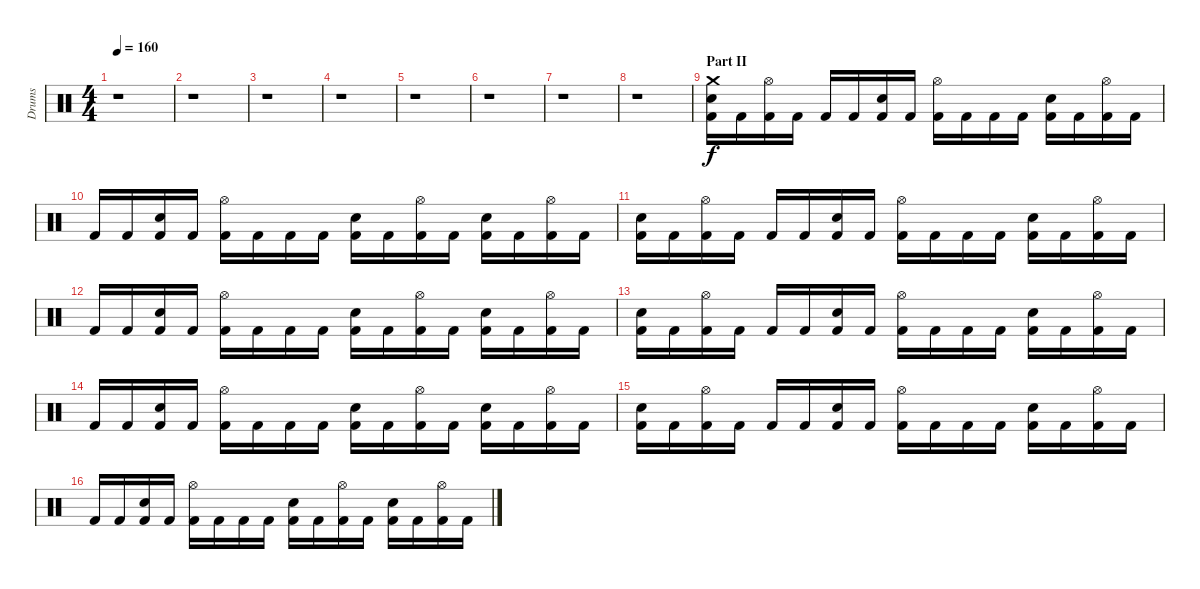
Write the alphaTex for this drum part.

\track ("Drums" "Drums") {instrument percussion}
\staff {score}
\articulation defaults
\ts (4 4)
\tempo 160
\clef neutral
\ks c
r.1{dy mf} |
r.1 |
r.1 |
r.1 |
r.1 |
r.1 |
r.1 |
r.1 |
\section ("" "Part II")
("Crash medium (hit)" "Snare (hit) 2" "Kick (hit) 2").16{dy f} "Kick (hit) 2".16 ("Hi-Hat (open)" "Kick (hit) 2").16 "Kick (hit) 2".16 "Kick (hit) 2".16 "Kick (hit) 2".16 ("Snare (hit) 2" "Kick (hit) 2").16 "Kick (hit) 2".16 ("Hi-Hat (open)" "Kick (hit) 2").16 "Kick (hit) 2".16 "Kick (hit) 2".16 "Kick (hit) 2".16 ("Snare (hit) 2" "Kick (hit) 2").16 "Kick (hit) 2".16 ("Hi-Hat (open)" "Kick (hit) 2").16 "Kick (hit) 2".16 |
"Kick (hit) 2".16 "Kick (hit) 2".16 ("Snare (hit) 2" "Kick (hit) 2").16 "Kick (hit) 2".16 ("Hi-Hat (open)" "Kick (hit) 2").16 "Kick (hit) 2".16 "Kick (hit) 2".16 "Kick (hit) 2".16 ("Snare (hit) 2" "Kick (hit) 2").16 "Kick (hit) 2".16 ("Hi-Hat (open)" "Kick (hit) 2").16 "Kick (hit) 2".16 ("Snare (hit) 2" "Kick (hit) 2").16 "Kick (hit) 2".16 ("Hi-Hat (open)" "Kick (hit) 2").16 "Kick (hit) 2".16 |
("Snare (hit) 2" "Kick (hit) 2").16 "Kick (hit) 2".16 ("Hi-Hat (open)" "Kick (hit) 2").16 "Kick (hit) 2".16 "Kick (hit) 2".16 "Kick (hit) 2".16 ("Snare (hit) 2" "Kick (hit) 2").16 "Kick (hit) 2".16 ("Hi-Hat (open)" "Kick (hit) 2").16 "Kick (hit) 2".16 "Kick (hit) 2".16 "Kick (hit) 2".16 ("Snare (hit) 2" "Kick (hit) 2").16 "Kick (hit) 2".16 ("Hi-Hat (open)" "Kick (hit) 2").16 "Kick (hit) 2".16 |
"Kick (hit) 2".16 "Kick (hit) 2".16 ("Snare (hit) 2" "Kick (hit) 2").16 "Kick (hit) 2".16 ("Hi-Hat (open)" "Kick (hit) 2").16 "Kick (hit) 2".16 "Kick (hit) 2".16 "Kick (hit) 2".16 ("Snare (hit) 2" "Kick (hit) 2").16 "Kick (hit) 2".16 ("Hi-Hat (open)" "Kick (hit) 2").16 "Kick (hit) 2".16 ("Snare (hit) 2" "Kick (hit) 2").16 "Kick (hit) 2".16 ("Hi-Hat (open)" "Kick (hit) 2").16 "Kick (hit) 2".16 |
("Snare (hit) 2" "Kick (hit) 2").16 "Kick (hit) 2".16 ("Hi-Hat (open)" "Kick (hit) 2").16 "Kick (hit) 2".16 "Kick (hit) 2".16 "Kick (hit) 2".16 ("Snare (hit) 2" "Kick (hit) 2").16 "Kick (hit) 2".16 ("Hi-Hat (open)" "Kick (hit) 2").16 "Kick (hit) 2".16 "Kick (hit) 2".16 "Kick (hit) 2".16 ("Snare (hit) 2" "Kick (hit) 2").16 "Kick (hit) 2".16 ("Hi-Hat (open)" "Kick (hit) 2").16 "Kick (hit) 2".16 |
"Kick (hit) 2".16 "Kick (hit) 2".16 ("Snare (hit) 2" "Kick (hit) 2").16 "Kick (hit) 2".16 ("Hi-Hat (open)" "Kick (hit) 2").16 "Kick (hit) 2".16 "Kick (hit) 2".16 "Kick (hit) 2".16 ("Snare (hit) 2" "Kick (hit) 2").16 "Kick (hit) 2".16 ("Hi-Hat (open)" "Kick (hit) 2").16 "Kick (hit) 2".16 ("Snare (hit) 2" "Kick (hit) 2").16 "Kick (hit) 2".16 ("Hi-Hat (open)" "Kick (hit) 2").16 "Kick (hit) 2".16 |
("Snare (hit) 2" "Kick (hit) 2").16 "Kick (hit) 2".16 ("Hi-Hat (open)" "Kick (hit) 2").16 "Kick (hit) 2".16 "Kick (hit) 2".16 "Kick (hit) 2".16 ("Snare (hit) 2" "Kick (hit) 2").16 "Kick (hit) 2".16 ("Hi-Hat (open)" "Kick (hit) 2").16 "Kick (hit) 2".16 "Kick (hit) 2".16 "Kick (hit) 2".16 ("Snare (hit) 2" "Kick (hit) 2").16 "Kick (hit) 2".16 ("Hi-Hat (open)" "Kick (hit) 2").16 "Kick (hit) 2".16 |
"Kick (hit) 2".16 "Kick (hit) 2".16 ("Snare (hit) 2" "Kick (hit) 2").16 "Kick (hit) 2".16 ("Hi-Hat (open)" "Kick (hit) 2").16 "Kick (hit) 2".16 "Kick (hit) 2".16 "Kick (hit) 2".16 ("Snare (hit) 2" "Kick (hit) 2").16 "Kick (hit) 2".16 ("Hi-Hat (open)" "Kick (hit) 2").16 "Kick (hit) 2".16 ("Snare (hit) 2" "Kick (hit) 2").16 "Kick (hit) 2".16 ("Hi-Hat (open)" "Kick (hit) 2").16 "Kick (hit) 2".16
